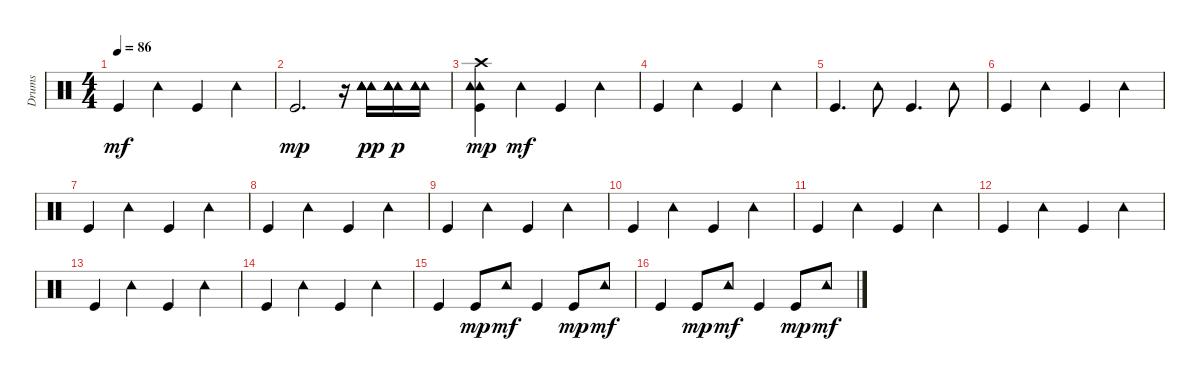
\track ("Drums" "Drums") {instrument percussion}
\staff {score}
\articulation defaults
\ts (4 4)
\tempo 86
\clef neutral
\ks c "Kick (hit)".4{dy mf} "Tambourine (hit)".4 "Kick (hit)".4 "Tambourine (hit)".4
|
"Kick (hit)".2{d dy mp} r.16 ("Tambourine (hit)" "Tambourine (hit)" "Tambourine (hit)" "Tambourine (hit)").16{dy pp} ("Tambourine (hit)" "Tambourine (hit)" "Tambourine (hit)" "Tambourine (hit)").16{dy p} ("Tambourine (hit)" "Tambourine (hit)" "Tambourine (hit)" "Tambourine (hit)").16 |
("Tambourine (hit)" "Tambourine (hit)" "Kick (hit)" "Crash high (hit)").4{dy mp} "Tambourine (hit)".4{dy mf} "Kick (hit)".4 "Tambourine (hit)".4 |
"Kick (hit)".4 "Tambourine (hit)".4 "Kick (hit)".4 "Tambourine (hit)".4 |
"Kick (hit)".4{d} "Tambourine (hit)".8 "Kick (hit)".4{d} "Tambourine (hit)".8 |
"Kick (hit)".4 "Tambourine (hit)".4 "Kick (hit)".4 "Tambourine (hit)".4 |
"Kick (hit)".4 "Tambourine (hit)".4 "Kick (hit)".4 "Tambourine (hit)".4 |
"Kick (hit)".4 "Tambourine (hit)".4 "Kick (hit)".4 "Tambourine (hit)".4 |
"Kick (hit)".4 "Tambourine (hit)".4 "Kick (hit)".4 "Tambourine (hit)".4 |
"Kick (hit)".4 "Tambourine (hit)".4 "Kick (hit)".4 "Tambourine (hit)".4 |
"Kick (hit)".4 "Tambourine (hit)".4 "Kick (hit)".4 "Tambourine (hit)".4 |
"Kick (hit)".4 "Tambourine (hit)".4 "Kick (hit)".4 "Tambourine (hit)".4 |
"Kick (hit)".4 "Tambourine (hit)".4 "Kick (hit)".4 "Tambourine (hit)".4 |
"Kick (hit)".4 "Tambourine (hit)".4 "Kick (hit)".4 "Tambourine (hit)".4 |
"Kick (hit)".4 "Kick (hit)".8{dy mp} "Tambourine (hit)".8{dy mf} "Kick (hit)".4 "Kick (hit)".8{dy mp} "Tambourine (hit)".8{dy mf} |
"Kick (hit)".4 "Kick (hit)".8{dy mp} "Tambourine (hit)".8{dy mf} "Kick (hit)".4 "Kick (hit)".8{dy mp} "Tambourine (hit)".8{dy mf}
